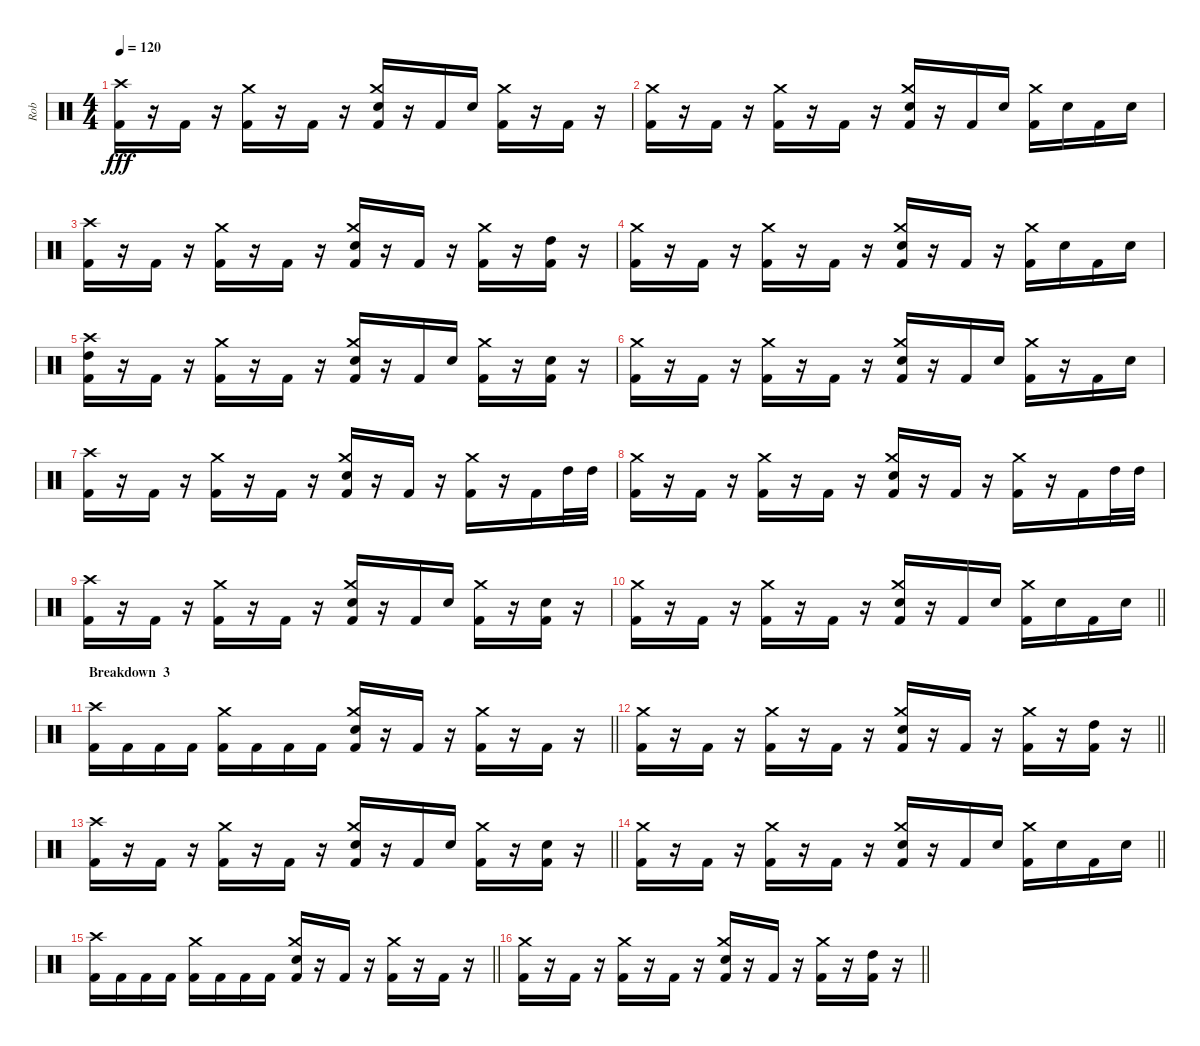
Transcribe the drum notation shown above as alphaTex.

\track ("Rob" "Rob") {instrument percussion}
\staff {score}
\articulation defaults
\ts (4 4)
\tempo 120
\clef neutral
\ks c
("Crash high (hit)" "Kick (hit) 2").16{dy fff} r.16 "Kick (hit) 2".16 r.16 ("Crash medium (hit)" "Kick (hit) 2").16 r.16 "Kick (hit) 2".16 r.16 ("Crash medium (hit)" "Electric Snare (hit)" "Kick (hit) 2").16 r.16 "Kick (hit) 2".16 "Electric Snare (hit)".16 ("Crash medium (hit)" "Kick (hit) 2").16 r.16 "Kick (hit) 2".16 r.16 |
("Crash medium (hit)" "Kick (hit) 2").16 r.16 "Kick (hit) 2".16 r.16 ("Crash medium (hit)" "Kick (hit) 2").16 r.16 "Kick (hit) 2".16 r.16 ("Crash medium (hit)" "Electric Snare (hit)" "Kick (hit) 2").16 r.16 "Kick (hit) 2".16 "Electric Snare (hit)".16 ("Crash medium (hit)" "Kick (hit) 2").16 "Electric Snare (hit)".16 "Kick (hit) 2".16 "Electric Snare (hit)".16 |
("Crash high (hit)" "Kick (hit) 2").16 r.16 "Kick (hit) 2".16 r.16 ("Crash medium (hit)" "Kick (hit) 2").16 r.16 "Kick (hit) 2".16 r.16 ("Crash medium (hit)" "Electric Snare (hit)" "Kick (hit) 2").16 r.16 "Kick (hit) 2".16 r.16 ("Crash medium (hit)" "Kick (hit) 2").16 r.16 ("High Tom (hit)" "Kick (hit) 2").16 r.16 |
("Crash medium (hit)" "Kick (hit) 2").16 r.16 "Kick (hit) 2".16 r.16 ("Crash medium (hit)" "Kick (hit) 2").16 r.16 "Kick (hit) 2".16 r.16 ("Crash medium (hit)" "Electric Snare (hit)" "Kick (hit) 2").16 r.16 "Kick (hit) 2".16 r.16 ("Crash medium (hit)" "Kick (hit) 2").16 "Electric Snare (hit)".16 "Kick (hit) 2".16 "Electric Snare (hit)".16 |
("Crash high (hit)" "High Tom (hit)" "Kick (hit) 2").16 r.16 "Kick (hit) 2".16 r.16 ("Crash medium (hit)" "Kick (hit) 2").16 r.16 "Kick (hit) 2".16 r.16 ("Crash medium (hit)" "Electric Snare (hit)" "Kick (hit) 2").16 r.16 "Kick (hit) 2".16 "Electric Snare (hit)".16 ("Crash medium (hit)" "Kick (hit) 2").16 r.16 ("Electric Snare (hit)" "Kick (hit) 2").16 r.16 |
("Crash medium (hit)" "Kick (hit) 2").16 r.16 "Kick (hit) 2".16 r.16 ("Crash medium (hit)" "Kick (hit) 2").16 r.16 "Kick (hit) 2".16 r.16 ("Crash medium (hit)" "Electric Snare (hit)" "Kick (hit) 2").16 r.16 "Kick (hit) 2".16 "Electric Snare (hit)".16 ("Crash medium (hit)" "Kick (hit) 2").16 r.16 "Kick (hit) 2".16 "Electric Snare (hit)".16 |
("Crash high (hit)" "Kick (hit) 2").16 r.16 "Kick (hit) 2".16 r.16 ("Crash medium (hit)" "Kick (hit) 2").16 r.16 "Kick (hit) 2".16 r.16 ("Crash medium (hit)" "Electric Snare (hit)" "Kick (hit) 2").16 r.16 "Kick (hit) 2".16 r.16 ("Crash medium (hit)" "Kick (hit) 2").16 r.16 "Kick (hit) 2".16 "High Tom (hit)".32 "High Tom (hit)".32 |
("Crash medium (hit)" "Kick (hit) 2").16 r.16 "Kick (hit) 2".16 r.16 ("Crash medium (hit)" "Kick (hit) 2").16 r.16 "Kick (hit) 2".16 r.16 ("Crash medium (hit)" "Electric Snare (hit)" "Kick (hit) 2").16 r.16 "Kick (hit) 2".16 r.16 ("Crash medium (hit)" "Kick (hit) 2").16 r.16 "Kick (hit) 2".16 "High Tom (hit)".32 "High Tom (hit)".32 |
("Crash high (hit)" "Kick (hit) 2").16 r.16 "Kick (hit) 2".16 r.16 ("Crash medium (hit)" "Kick (hit) 2").16 r.16 "Kick (hit) 2".16 r.16 ("Crash medium (hit)" "Electric Snare (hit)" "Kick (hit) 2").16 r.16 "Kick (hit) 2".16 "Electric Snare (hit)".16 ("Crash medium (hit)" "Kick (hit) 2").16 r.16 ("Electric Snare (hit)" "Kick (hit) 2").16 r.16 |
\barLineRight lightlight
("Crash medium (hit)" "Kick (hit) 2").16 r.16 "Kick (hit) 2".16 r.16 ("Crash medium (hit)" "Kick (hit) 2").16 r.16 "Kick (hit) 2".16 r.16 ("Crash medium (hit)" "Electric Snare (hit)" "Kick (hit) 2").16 r.16 "Kick (hit) 2".16 "Electric Snare (hit)".16 ("Crash medium (hit)" "Kick (hit) 2").16 "Electric Snare (hit)".16 "Kick (hit) 2".16 "Electric Snare (hit)".16 |
\section ("" "Breakdown  3")
\barLineRight lightlight
("Crash high (hit)" "Kick (hit) 2").16 "Kick (hit) 2".16 "Kick (hit) 2".16 "Kick (hit) 2".16 ("Crash medium (hit)" "Kick (hit) 2").16 "Kick (hit) 2".16 "Kick (hit) 2".16 "Kick (hit) 2".16 ("Crash medium (hit)" "Electric Snare (hit)" "Kick (hit) 2").16 r.16 "Kick (hit) 2".16 r.16 ("Crash medium (hit)" "Kick (hit) 2").16 r.16 "Kick (hit) 2".16 r.16 |
\barLineRight lightlight
("Crash medium (hit)" "Kick (hit) 2").16 r.16 "Kick (hit) 2".16 r.16 ("Crash medium (hit)" "Kick (hit) 2").16 r.16 "Kick (hit) 2".16 r.16 ("Crash medium (hit)" "Electric Snare (hit)" "Kick (hit) 2").16 r.16 "Kick (hit) 2".16 r.16 ("Crash medium (hit)" "Kick (hit) 2").16 r.16 ("High Tom (hit)" "Kick (hit) 2").16 r.16 |
\barLineRight lightlight
("Crash high (hit)" "Kick (hit) 2").16 r.16 "Kick (hit) 2".16 r.16 ("Crash medium (hit)" "Kick (hit) 2").16 r.16 "Kick (hit) 2".16 r.16 ("Crash medium (hit)" "Electric Snare (hit)" "Kick (hit) 2").16 r.16 "Kick (hit) 2".16 "Electric Snare (hit)".16 ("Crash medium (hit)" "Kick (hit) 2").16 r.16 ("Electric Snare (hit)" "Kick (hit) 2").16 r.16 |
\barLineRight lightlight
("Crash medium (hit)" "Kick (hit) 2").16 r.16 "Kick (hit) 2".16 r.16 ("Crash medium (hit)" "Kick (hit) 2").16 r.16 "Kick (hit) 2".16 r.16 ("Crash medium (hit)" "Electric Snare (hit)" "Kick (hit) 2").16 r.16 "Kick (hit) 2".16 "Electric Snare (hit)".16 ("Crash medium (hit)" "Kick (hit) 2").16 "Electric Snare (hit)".16 "Kick (hit) 2".16 "Electric Snare (hit)".16 |
\barLineRight lightlight
("Crash high (hit)" "Kick (hit) 2").16 "Kick (hit) 2".16 "Kick (hit) 2".16 "Kick (hit) 2".16 ("Crash medium (hit)" "Kick (hit) 2").16 "Kick (hit) 2".16 "Kick (hit) 2".16 "Kick (hit) 2".16 ("Crash medium (hit)" "Electric Snare (hit)" "Kick (hit) 2").16 r.16 "Kick (hit) 2".16 r.16 ("Crash medium (hit)" "Kick (hit) 2").16 r.16 "Kick (hit) 2".16 r.16 |
\barLineRight lightlight
("Crash medium (hit)" "Kick (hit) 2").16 r.16 "Kick (hit) 2".16 r.16 ("Crash medium (hit)" "Kick (hit) 2").16 r.16 "Kick (hit) 2".16 r.16 ("Crash medium (hit)" "Electric Snare (hit)" "Kick (hit) 2").16 r.16 "Kick (hit) 2".16 r.16 ("Crash medium (hit)" "Kick (hit) 2").16 r.16 ("High Tom (hit)" "Kick (hit) 2").16 r.16
